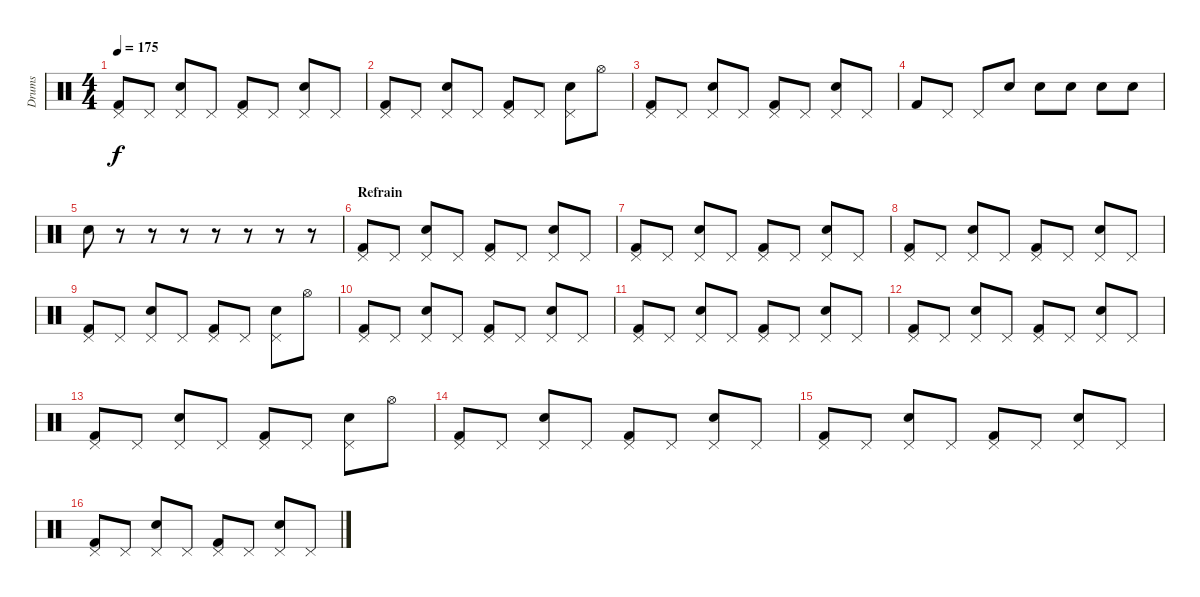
\track ("Drums" "Drums") {instrument percussion}
\staff {score}
\articulation defaults
\ts (4 4)
\tempo 175
\clef neutral
\ks c
("Pedal Hi-Hat (hit)" "Kick (hit) 2").8{dy f} "Pedal Hi-Hat (hit)".8 ("Pedal Hi-Hat (hit)" "Snare (hit) 2").8 "Pedal Hi-Hat (hit)".8 ("Pedal Hi-Hat (hit)" "Kick (hit) 2").8 "Pedal Hi-Hat (hit)".8 ("Pedal Hi-Hat (hit)" "Snare (hit) 2").8 "Pedal Hi-Hat (hit)".8 |
("Pedal Hi-Hat (hit)" "Kick (hit) 2").8 "Pedal Hi-Hat (hit)".8 ("Pedal Hi-Hat (hit)" "Snare (hit) 2").8 "Pedal Hi-Hat (hit)".8 ("Pedal Hi-Hat (hit)" "Kick (hit) 2").8 "Pedal Hi-Hat (hit)".8 ("Pedal Hi-Hat (hit)" "Snare (hit) 2").8 "Hi-Hat (open)".8 |
("Pedal Hi-Hat (hit)" "Kick (hit) 2").8 "Pedal Hi-Hat (hit)".8 ("Pedal Hi-Hat (hit)" "Snare (hit) 2").8 "Pedal Hi-Hat (hit)".8 ("Pedal Hi-Hat (hit)" "Kick (hit) 2").8 "Pedal Hi-Hat (hit)".8 ("Pedal Hi-Hat (hit)" "Snare (hit) 2").8 "Pedal Hi-Hat (hit)".8 |
"Kick (hit) 2".8 "Pedal Hi-Hat (hit)".8 "Pedal Hi-Hat (hit)".8 "Snare (hit) 2".8 "Snare (hit) 2".8 "Snare (hit) 2".8 "Snare (hit) 2".8 "Snare (hit) 2".8 |
"Snare (hit) 2".8 r.8 r.8 r.8 r.8 r.8 r.8 r.8 |
\section ("" "Refrain")
("Pedal Hi-Hat (hit)" "Kick (hit) 2").8 "Pedal Hi-Hat (hit)".8 ("Pedal Hi-Hat (hit)" "Snare (hit) 2").8 "Pedal Hi-Hat (hit)".8 ("Pedal Hi-Hat (hit)" "Kick (hit) 2").8 "Pedal Hi-Hat (hit)".8 ("Pedal Hi-Hat (hit)" "Snare (hit) 2").8 "Pedal Hi-Hat (hit)".8 |
("Pedal Hi-Hat (hit)" "Kick (hit) 2").8 "Pedal Hi-Hat (hit)".8 ("Pedal Hi-Hat (hit)" "Snare (hit) 2").8 "Pedal Hi-Hat (hit)".8 ("Pedal Hi-Hat (hit)" "Kick (hit) 2").8 "Pedal Hi-Hat (hit)".8 ("Pedal Hi-Hat (hit)" "Snare (hit) 2").8 "Pedal Hi-Hat (hit)".8 |
("Pedal Hi-Hat (hit)" "Kick (hit) 2").8 "Pedal Hi-Hat (hit)".8 ("Pedal Hi-Hat (hit)" "Snare (hit) 2").8 "Pedal Hi-Hat (hit)".8 ("Pedal Hi-Hat (hit)" "Kick (hit) 2").8 "Pedal Hi-Hat (hit)".8 ("Pedal Hi-Hat (hit)" "Snare (hit) 2").8 "Pedal Hi-Hat (hit)".8 |
("Pedal Hi-Hat (hit)" "Kick (hit) 2").8 "Pedal Hi-Hat (hit)".8 ("Pedal Hi-Hat (hit)" "Snare (hit) 2").8 "Pedal Hi-Hat (hit)".8 ("Pedal Hi-Hat (hit)" "Kick (hit) 2").8 "Pedal Hi-Hat (hit)".8 ("Pedal Hi-Hat (hit)" "Snare (hit) 2").8 "Hi-Hat (open)".8 |
("Pedal Hi-Hat (hit)" "Kick (hit) 2").8 "Pedal Hi-Hat (hit)".8 ("Pedal Hi-Hat (hit)" "Snare (hit) 2").8 "Pedal Hi-Hat (hit)".8 ("Pedal Hi-Hat (hit)" "Kick (hit) 2").8 "Pedal Hi-Hat (hit)".8 ("Pedal Hi-Hat (hit)" "Snare (hit) 2").8 "Pedal Hi-Hat (hit)".8 |
("Pedal Hi-Hat (hit)" "Kick (hit) 2").8 "Pedal Hi-Hat (hit)".8 ("Pedal Hi-Hat (hit)" "Snare (hit) 2").8 "Pedal Hi-Hat (hit)".8 ("Pedal Hi-Hat (hit)" "Kick (hit) 2").8 "Pedal Hi-Hat (hit)".8 ("Pedal Hi-Hat (hit)" "Snare (hit) 2").8 "Pedal Hi-Hat (hit)".8 |
("Pedal Hi-Hat (hit)" "Kick (hit) 2").8 "Pedal Hi-Hat (hit)".8 ("Pedal Hi-Hat (hit)" "Snare (hit) 2").8 "Pedal Hi-Hat (hit)".8 ("Pedal Hi-Hat (hit)" "Kick (hit) 2").8 "Pedal Hi-Hat (hit)".8 ("Pedal Hi-Hat (hit)" "Snare (hit) 2").8 "Pedal Hi-Hat (hit)".8 |
("Pedal Hi-Hat (hit)" "Kick (hit) 2").8 "Pedal Hi-Hat (hit)".8 ("Pedal Hi-Hat (hit)" "Snare (hit) 2").8 "Pedal Hi-Hat (hit)".8 ("Pedal Hi-Hat (hit)" "Kick (hit) 2").8 "Pedal Hi-Hat (hit)".8 ("Pedal Hi-Hat (hit)" "Snare (hit) 2").8 "Hi-Hat (open)".8 |
("Pedal Hi-Hat (hit)" "Kick (hit) 2").8 "Pedal Hi-Hat (hit)".8 ("Pedal Hi-Hat (hit)" "Snare (hit) 2").8 "Pedal Hi-Hat (hit)".8 ("Pedal Hi-Hat (hit)" "Kick (hit) 2").8 "Pedal Hi-Hat (hit)".8 ("Pedal Hi-Hat (hit)" "Snare (hit) 2").8 "Pedal Hi-Hat (hit)".8 |
("Pedal Hi-Hat (hit)" "Kick (hit) 2").8 "Pedal Hi-Hat (hit)".8 ("Pedal Hi-Hat (hit)" "Snare (hit) 2").8 "Pedal Hi-Hat (hit)".8 ("Pedal Hi-Hat (hit)" "Kick (hit) 2").8 "Pedal Hi-Hat (hit)".8 ("Pedal Hi-Hat (hit)" "Snare (hit) 2").8 "Pedal Hi-Hat (hit)".8 |
("Pedal Hi-Hat (hit)" "Kick (hit) 2").8 "Pedal Hi-Hat (hit)".8 ("Pedal Hi-Hat (hit)" "Snare (hit) 2").8 "Pedal Hi-Hat (hit)".8 ("Pedal Hi-Hat (hit)" "Kick (hit) 2").8 "Pedal Hi-Hat (hit)".8 ("Pedal Hi-Hat (hit)" "Snare (hit) 2").8 "Pedal Hi-Hat (hit)".8
